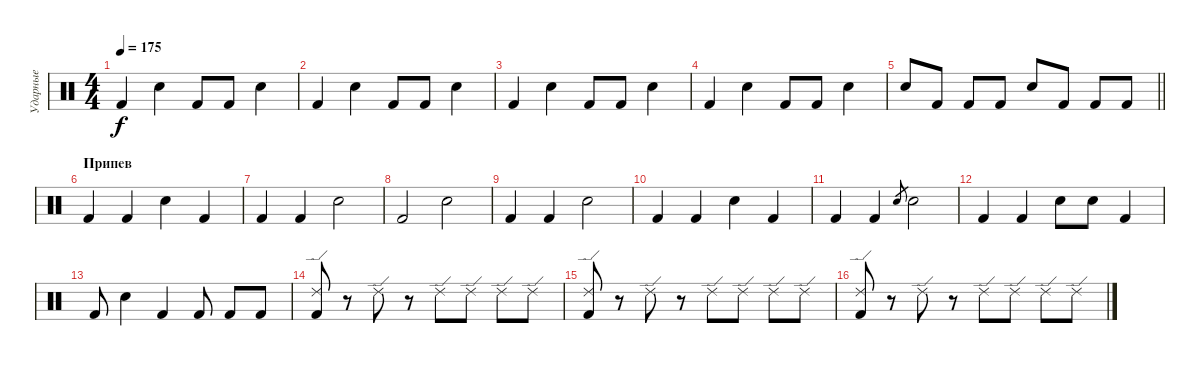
\track ("Ударные" "Ударные") {instrument percussion}
\staff {score}
\articulation defaults
\ts (4 4)
\tempo 175
\clef neutral
\ks c "Kick (hit) 2".4{dy f} "Electric Snare (hit)".4 "Kick (hit) 2".8 "Kick (hit) 2".8 "Electric Snare (hit)".4
|
"Kick (hit) 2".4 "Electric Snare (hit)".4 "Kick (hit) 2".8 "Kick (hit) 2".8 "Electric Snare (hit)".4 |
"Kick (hit) 2".4 "Electric Snare (hit)".4 "Kick (hit) 2".8 "Kick (hit) 2".8 "Electric Snare (hit)".4 |
"Kick (hit) 2".4 "Electric Snare (hit)".4 "Kick (hit) 2".8 "Kick (hit) 2".8 "Electric Snare (hit)".4 |
\barLineRight lightlight "Electric Snare (hit)".8 "Kick (hit) 2".8 "Kick (hit) 2".8 "Kick (hit) 2".8 "Electric Snare (hit)".8 "Kick (hit) 2".8 "Kick (hit) 2".8 "Kick (hit) 2".8
|
\section ("" "Припев")
"Kick (hit) 2".4 "Kick (hit) 2".4 "Electric Snare (hit)".4 "Kick (hit) 2".4 |
"Kick (hit) 2".4 "Kick (hit) 2".4 "Electric Snare (hit)".2 |
"Kick (hit) 2".2 "Electric Snare (hit)".2 |
"Kick (hit) 2".4 "Kick (hit) 2".4 "Electric Snare (hit)".2 |
"Kick (hit) 2".4 "Kick (hit) 2".4 "Electric Snare (hit)".4 "Kick (hit) 2".4 |
"Kick (hit) 2".4 "Kick (hit) 2".4 "Electric Snare (hit)".8{gr} "Electric Snare (hit)".2 |
"Kick (hit) 2".4 "Kick (hit) 2".4 "Electric Snare (hit)".8 "Electric Snare (hit)".8 "Kick (hit) 2".4 |
"Kick (hit) 2".8 "Electric Snare (hit)".4 "Kick (hit) 2".4 "Kick (hit) 2".8 "Kick (hit) 2".8 "Kick (hit) 2".8 |
("Ride (edge) 2" "Kick (hit) 2").8 r.8 "Ride (edge) 2".8 r.8 "Ride (edge) 2".8 "Ride (edge) 2".8 "Ride (edge) 2".8 "Ride (edge) 2".8 |
("Ride (edge) 2" "Kick (hit) 2").8 r.8 "Ride (edge) 2".8 r.8 "Ride (edge) 2".8 "Ride (edge) 2".8 "Ride (edge) 2".8 "Ride (edge) 2".8 |
("Ride (edge) 2" "Kick (hit) 2").8 r.8 "Ride (edge) 2".8 r.8 "Ride (edge) 2".8 "Ride (edge) 2".8 "Ride (edge) 2".8 "Ride (edge) 2".8
